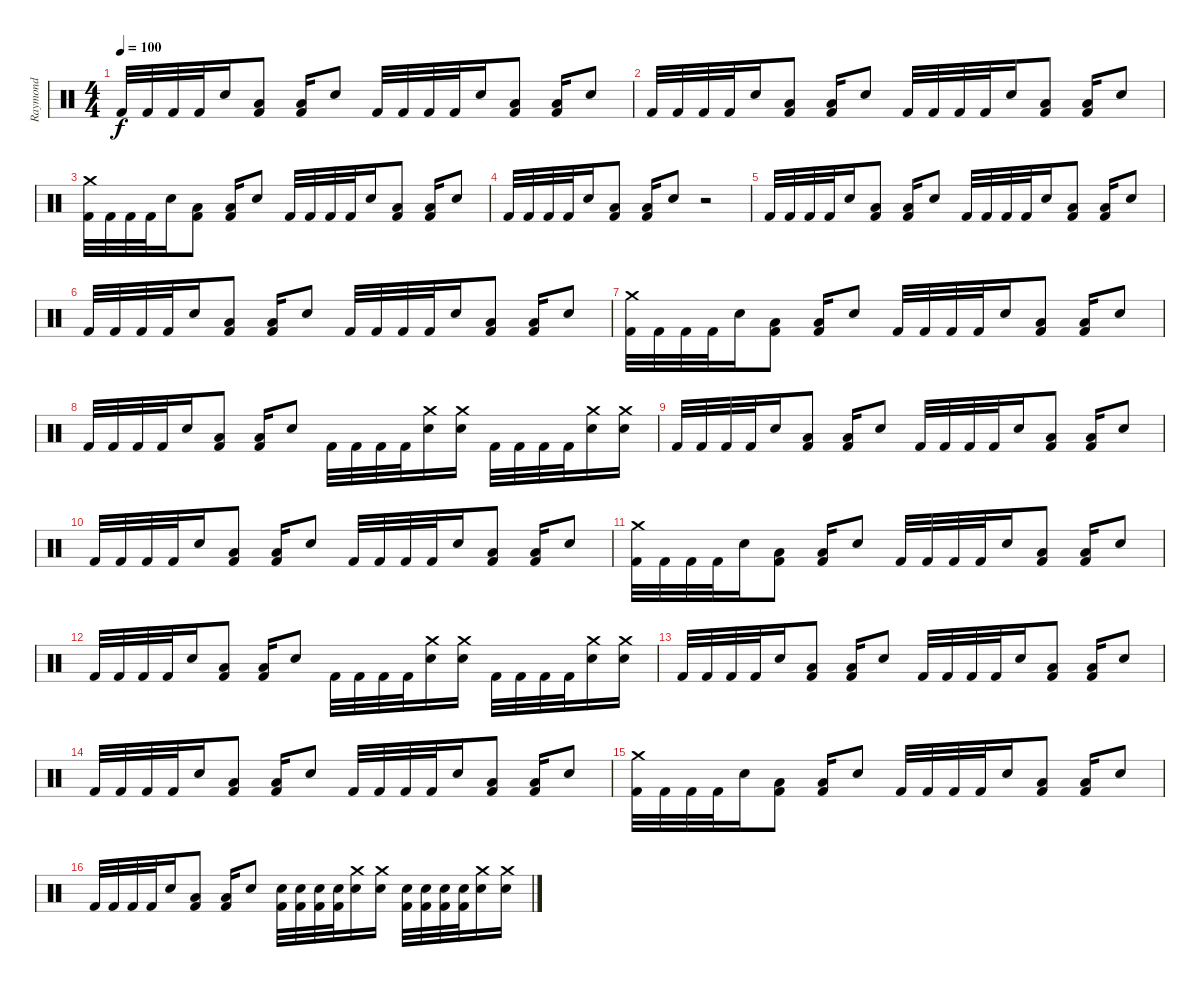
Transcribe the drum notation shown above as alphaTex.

\track ("Raymond" "Raymond") {instrument percussion}
\staff {score}
\articulation defaults
\ts (4 4)
\tempo 100
\clef neutral
\ks c "Kick (hit) 2".32{dy f} "Kick (hit) 2".32 "Kick (hit) 2".32 "Kick (hit) 2".32 "Snare (hit) 2".16
("Low Floor Tom (hit)" "Kick (hit) 2").8 ("Low Floor Tom (hit)" "Kick (hit) 2").16 "Snare (hit) 2".8 "Kick (hit) 2".32 "Kick (hit) 2".32 "Kick (hit) 2".32 "Kick (hit) 2".32 "Snare (hit) 2".16 ("Low Floor Tom (hit)" "Kick (hit) 2").8 ("Low Floor Tom (hit)" "Kick (hit) 2").16 "Snare (hit) 2".8 |
"Kick (hit) 2".32 "Kick (hit) 2".32 "Kick (hit) 2".32 "Kick (hit) 2".32 "Snare (hit) 2".16 ("Low Floor Tom (hit)" "Kick (hit) 2").8 ("Low Floor Tom (hit)" "Kick (hit) 2").16 "Snare (hit) 2".8 "Kick (hit) 2".32 "Kick (hit) 2".32 "Kick (hit) 2".32 "Kick (hit) 2".32 "Snare (hit) 2".16 ("Low Floor Tom (hit)" "Kick (hit) 2").8 ("Low Floor Tom (hit)" "Kick (hit) 2").16 "Snare (hit) 2".8 |
("Crash medium (hit)" "Kick (hit) 2").32 "Kick (hit) 2".32 "Kick (hit) 2".32 "Kick (hit) 2".32 "Snare (hit) 2".16 ("Low Floor Tom (hit)" "Kick (hit) 2").8 ("Low Floor Tom (hit)" "Kick (hit) 2").16 "Snare (hit) 2".8 "Kick (hit) 2".32 "Kick (hit) 2".32 "Kick (hit) 2".32 "Kick (hit) 2".32 "Snare (hit) 2".16 ("Low Floor Tom (hit)" "Kick (hit) 2").8 ("Low Floor Tom (hit)" "Kick (hit) 2").16 "Snare (hit) 2".8 |
"Kick (hit) 2".32 "Kick (hit) 2".32 "Kick (hit) 2".32 "Kick (hit) 2".32 "Snare (hit) 2".16 ("Low Floor Tom (hit)" "Kick (hit) 2").8 ("Low Floor Tom (hit)" "Kick (hit) 2").16 "Snare (hit) 2".8 r.2 |
"Kick (hit) 2".32 "Kick (hit) 2".32 "Kick (hit) 2".32 "Kick (hit) 2".32 "Snare (hit) 2".16 ("Low Floor Tom (hit)" "Kick (hit) 2").8 ("Low Floor Tom (hit)" "Kick (hit) 2").16 "Snare (hit) 2".8 "Kick (hit) 2".32 "Kick (hit) 2".32 "Kick (hit) 2".32 "Kick (hit) 2".32 "Snare (hit) 2".16 ("Low Floor Tom (hit)" "Kick (hit) 2").8 ("Low Floor Tom (hit)" "Kick (hit) 2").16 "Snare (hit) 2".8 |
"Kick (hit) 2".32 "Kick (hit) 2".32 "Kick (hit) 2".32 "Kick (hit) 2".32 "Snare (hit) 2".16 ("Low Floor Tom (hit)" "Kick (hit) 2").8 ("Low Floor Tom (hit)" "Kick (hit) 2").16 "Snare (hit) 2".8 "Kick (hit) 2".32 "Kick (hit) 2".32 "Kick (hit) 2".32 "Kick (hit) 2".32 "Snare (hit) 2".16 ("Low Floor Tom (hit)" "Kick (hit) 2").8 ("Low Floor Tom (hit)" "Kick (hit) 2").16 "Snare (hit) 2".8 |
("Crash medium (hit)" "Kick (hit) 2").32 "Kick (hit) 2".32 "Kick (hit) 2".32 "Kick (hit) 2".32 "Snare (hit) 2".16 ("Low Floor Tom (hit)" "Kick (hit) 2").8 ("Low Floor Tom (hit)" "Kick (hit) 2").16 "Snare (hit) 2".8 "Kick (hit) 2".32 "Kick (hit) 2".32 "Kick (hit) 2".32 "Kick (hit) 2".32 "Snare (hit) 2".16 ("Low Floor Tom (hit)" "Kick (hit) 2").8 ("Low Floor Tom (hit)" "Kick (hit) 2").16 "Snare (hit) 2".8 |
"Kick (hit) 2".32 "Kick (hit) 2".32 "Kick (hit) 2".32 "Kick (hit) 2".32 "Snare (hit) 2".16 ("Low Floor Tom (hit)" "Kick (hit) 2").8 ("Low Floor Tom (hit)" "Kick (hit) 2").16 "Snare (hit) 2".8 "Kick (hit) 2".32 "Kick (hit) 2".32 "Kick (hit) 2".32 "Kick (hit) 2".32 ("Crash medium (hit)" "Snare (hit) 2").16 ("Crash medium (hit)" "Snare (hit) 2").16 "Kick (hit) 2".32 "Kick (hit) 2".32 "Kick (hit) 2".32 "Kick (hit) 2".32 ("Crash medium (hit)" "Snare (hit) 2").16 ("Crash medium (hit)" "Snare (hit) 2").16 |
"Kick (hit) 2".32 "Kick (hit) 2".32 "Kick (hit) 2".32 "Kick (hit) 2".32 "Snare (hit) 2".16 ("Low Floor Tom (hit)" "Kick (hit) 2").8 ("Low Floor Tom (hit)" "Kick (hit) 2").16 "Snare (hit) 2".8 "Kick (hit) 2".32 "Kick (hit) 2".32 "Kick (hit) 2".32 "Kick (hit) 2".32 "Snare (hit) 2".16 ("Low Floor Tom (hit)" "Kick (hit) 2").8 ("Low Floor Tom (hit)" "Kick (hit) 2").16 "Snare (hit) 2".8 |
"Kick (hit) 2".32 "Kick (hit) 2".32 "Kick (hit) 2".32 "Kick (hit) 2".32 "Snare (hit) 2".16 ("Low Floor Tom (hit)" "Kick (hit) 2").8 ("Low Floor Tom (hit)" "Kick (hit) 2").16 "Snare (hit) 2".8 "Kick (hit) 2".32 "Kick (hit) 2".32 "Kick (hit) 2".32 "Kick (hit) 2".32 "Snare (hit) 2".16 ("Low Floor Tom (hit)" "Kick (hit) 2").8 ("Low Floor Tom (hit)" "Kick (hit) 2").16 "Snare (hit) 2".8 |
("Crash medium (hit)" "Kick (hit) 2").32 "Kick (hit) 2".32 "Kick (hit) 2".32 "Kick (hit) 2".32 "Snare (hit) 2".16 ("Low Floor Tom (hit)" "Kick (hit) 2").8 ("Low Floor Tom (hit)" "Kick (hit) 2").16 "Snare (hit) 2".8 "Kick (hit) 2".32 "Kick (hit) 2".32 "Kick (hit) 2".32 "Kick (hit) 2".32 "Snare (hit) 2".16 ("Low Floor Tom (hit)" "Kick (hit) 2").8 ("Low Floor Tom (hit)" "Kick (hit) 2").16 "Snare (hit) 2".8 |
"Kick (hit) 2".32 "Kick (hit) 2".32 "Kick (hit) 2".32 "Kick (hit) 2".32 "Snare (hit) 2".16 ("Low Floor Tom (hit)" "Kick (hit) 2").8 ("Low Floor Tom (hit)" "Kick (hit) 2").16 "Snare (hit) 2".8 "Kick (hit) 2".32 "Kick (hit) 2".32 "Kick (hit) 2".32 "Kick (hit) 2".32 ("Crash medium (hit)" "Snare (hit) 2").16 ("Crash medium (hit)" "Snare (hit) 2").16 "Kick (hit) 2".32 "Kick (hit) 2".32 "Kick (hit) 2".32 "Kick (hit) 2".32 ("Crash medium (hit)" "Snare (hit) 2").16 ("Crash medium (hit)" "Snare (hit) 2").16 |
"Kick (hit) 2".32 "Kick (hit) 2".32 "Kick (hit) 2".32 "Kick (hit) 2".32 "Snare (hit) 2".16 ("Low Floor Tom (hit)" "Kick (hit) 2").8 ("Low Floor Tom (hit)" "Kick (hit) 2").16 "Snare (hit) 2".8 "Kick (hit) 2".32 "Kick (hit) 2".32 "Kick (hit) 2".32 "Kick (hit) 2".32 "Snare (hit) 2".16 ("Low Floor Tom (hit)" "Kick (hit) 2").8 ("Low Floor Tom (hit)" "Kick (hit) 2").16 "Snare (hit) 2".8 |
"Kick (hit) 2".32 "Kick (hit) 2".32 "Kick (hit) 2".32 "Kick (hit) 2".32 "Snare (hit) 2".16 ("Low Floor Tom (hit)" "Kick (hit) 2").8 ("Low Floor Tom (hit)" "Kick (hit) 2").16 "Snare (hit) 2".8 "Kick (hit) 2".32 "Kick (hit) 2".32 "Kick (hit) 2".32 "Kick (hit) 2".32 "Snare (hit) 2".16 ("Low Floor Tom (hit)" "Kick (hit) 2").8 ("Low Floor Tom (hit)" "Kick (hit) 2").16 "Snare (hit) 2".8 |
("Crash medium (hit)" "Kick (hit) 2").32 "Kick (hit) 2".32 "Kick (hit) 2".32 "Kick (hit) 2".32 "Snare (hit) 2".16 ("Low Floor Tom (hit)" "Kick (hit) 2").8 ("Low Floor Tom (hit)" "Kick (hit) 2").16 "Snare (hit) 2".8 "Kick (hit) 2".32 "Kick (hit) 2".32 "Kick (hit) 2".32 "Kick (hit) 2".32 "Snare (hit) 2".16 ("Low Floor Tom (hit)" "Kick (hit) 2").8 ("Low Floor Tom (hit)" "Kick (hit) 2").16 "Snare (hit) 2".8 |
"Kick (hit) 2".32 "Kick (hit) 2".32 "Kick (hit) 2".32 "Kick (hit) 2".32 "Snare (hit) 2".16 ("Low Floor Tom (hit)" "Kick (hit) 2").8 ("Low Floor Tom (hit)" "Kick (hit) 2").16 "Snare (hit) 2".8 ("Snare (hit) 2" "Kick (hit) 2").32 ("Snare (hit) 2" "Kick (hit) 2").32 ("Snare (hit) 2" "Kick (hit) 2").32 ("Snare (hit) 2" "Kick (hit) 2").32 ("Crash medium (hit)" "Snare (hit) 2").16 ("Crash medium (hit)" "Snare (hit) 2").16 ("Snare (hit) 2" "Kick (hit) 2").32 ("Snare (hit) 2" "Kick (hit) 2").32 ("Snare (hit) 2" "Kick (hit) 2").32 ("Snare (hit) 2" "Kick (hit) 2").32 ("Crash medium (hit)" "Snare (hit) 2").16 ("Crash medium (hit)" "Snare (hit) 2").16
